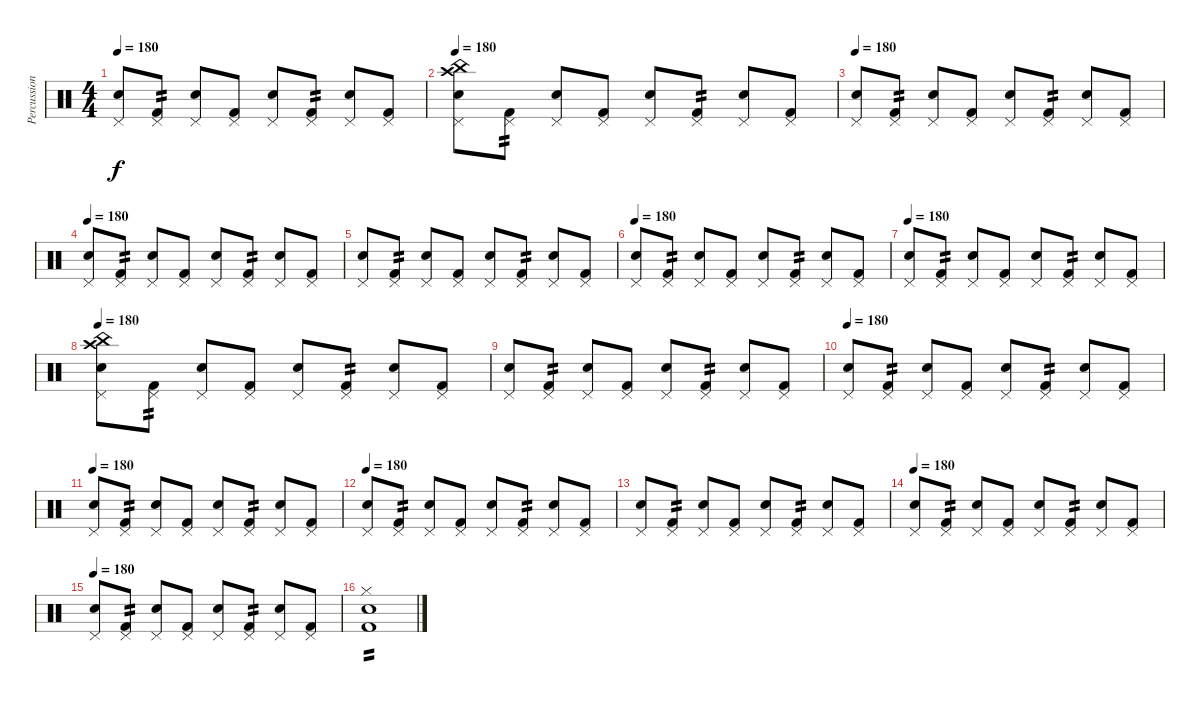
\track ("Percussion" "Percussion") {instrument percussion}
\staff {score}
\articulation defaults
\ts (4 4)
\tempo 180
\clef neutral
\ks c
("Pedal Hi-Hat (hit)" "Electric Snare (hit)").8{dy f} ("Pedal Hi-Hat (hit)" "Kick (hit) 2").8{tp 2} ("Pedal Hi-Hat (hit)" "Electric Snare (hit)").8 ("Pedal Hi-Hat (hit)" "Kick (hit) 2").8 ("Pedal Hi-Hat (hit)" "Electric Snare (hit)").8 ("Pedal Hi-Hat (hit)" "Kick (hit) 2").8{tp 2} ("Pedal Hi-Hat (hit)" "Electric Snare (hit)").8 ("Pedal Hi-Hat (hit)" "Kick (hit) 2").8 |
\tempo 180
("China (hit)" "Crash high (hit)" "Pedal Hi-Hat (hit)" "Electric Snare (hit)").8 ("Pedal Hi-Hat (hit)" "Kick (hit) 2").8{tp 2} ("Pedal Hi-Hat (hit)" "Electric Snare (hit)").8 ("Pedal Hi-Hat (hit)" "Kick (hit) 2").8 ("Pedal Hi-Hat (hit)" "Electric Snare (hit)").8 ("Pedal Hi-Hat (hit)" "Kick (hit) 2").8{tp 2} ("Pedal Hi-Hat (hit)" "Electric Snare (hit)").8 ("Pedal Hi-Hat (hit)" "Kick (hit) 2").8 |
\tempo 180
("Pedal Hi-Hat (hit)" "Electric Snare (hit)").8 ("Pedal Hi-Hat (hit)" "Kick (hit) 2").8{tp 2} ("Pedal Hi-Hat (hit)" "Electric Snare (hit)").8 ("Pedal Hi-Hat (hit)" "Kick (hit) 2").8 ("Pedal Hi-Hat (hit)" "Electric Snare (hit)").8 ("Pedal Hi-Hat (hit)" "Kick (hit) 2").8{tp 2} ("Pedal Hi-Hat (hit)" "Electric Snare (hit)").8 ("Pedal Hi-Hat (hit)" "Kick (hit) 2").8 |
\tempo 180
("Pedal Hi-Hat (hit)" "Electric Snare (hit)").8 ("Pedal Hi-Hat (hit)" "Kick (hit) 2").8{tp 2} ("Pedal Hi-Hat (hit)" "Electric Snare (hit)").8 ("Pedal Hi-Hat (hit)" "Kick (hit) 2").8 ("Pedal Hi-Hat (hit)" "Electric Snare (hit)").8 ("Pedal Hi-Hat (hit)" "Kick (hit) 2").8{tp 2} ("Pedal Hi-Hat (hit)" "Electric Snare (hit)").8 ("Pedal Hi-Hat (hit)" "Kick (hit) 2").8 |
("Pedal Hi-Hat (hit)" "Electric Snare (hit)").8 ("Pedal Hi-Hat (hit)" "Kick (hit) 2").8{tp 2} ("Pedal Hi-Hat (hit)" "Electric Snare (hit)").8 ("Pedal Hi-Hat (hit)" "Kick (hit) 2").8 ("Pedal Hi-Hat (hit)" "Electric Snare (hit)").8 ("Pedal Hi-Hat (hit)" "Kick (hit) 2").8{tp 2} ("Pedal Hi-Hat (hit)" "Electric Snare (hit)").8 ("Pedal Hi-Hat (hit)" "Kick (hit) 2").8 |
\tempo 180
("Pedal Hi-Hat (hit)" "Electric Snare (hit)").8 ("Pedal Hi-Hat (hit)" "Kick (hit) 2").8{tp 2} ("Pedal Hi-Hat (hit)" "Electric Snare (hit)").8 ("Pedal Hi-Hat (hit)" "Kick (hit) 2").8 ("Pedal Hi-Hat (hit)" "Electric Snare (hit)").8 ("Pedal Hi-Hat (hit)" "Kick (hit) 2").8{tp 2} ("Pedal Hi-Hat (hit)" "Electric Snare (hit)").8 ("Pedal Hi-Hat (hit)" "Kick (hit) 2").8 |
\tempo 180
("Pedal Hi-Hat (hit)" "Electric Snare (hit)").8 ("Pedal Hi-Hat (hit)" "Kick (hit) 2").8{tp 2} ("Pedal Hi-Hat (hit)" "Electric Snare (hit)").8 ("Pedal Hi-Hat (hit)" "Kick (hit) 2").8 ("Pedal Hi-Hat (hit)" "Electric Snare (hit)").8 ("Pedal Hi-Hat (hit)" "Kick (hit) 2").8{tp 2} ("Pedal Hi-Hat (hit)" "Electric Snare (hit)").8 ("Pedal Hi-Hat (hit)" "Kick (hit) 2").8 |
\tempo 180
("China (hit)" "Crash high (hit)" "Pedal Hi-Hat (hit)" "Electric Snare (hit)").8 ("Pedal Hi-Hat (hit)" "Kick (hit) 2").8{tp 2} ("Pedal Hi-Hat (hit)" "Electric Snare (hit)").8 ("Pedal Hi-Hat (hit)" "Kick (hit) 2").8 ("Pedal Hi-Hat (hit)" "Electric Snare (hit)").8 ("Pedal Hi-Hat (hit)" "Kick (hit) 2").8{tp 2} ("Pedal Hi-Hat (hit)" "Electric Snare (hit)").8 ("Pedal Hi-Hat (hit)" "Kick (hit) 2").8 |
("Pedal Hi-Hat (hit)" "Electric Snare (hit)").8 ("Pedal Hi-Hat (hit)" "Kick (hit) 2").8{tp 2} ("Pedal Hi-Hat (hit)" "Electric Snare (hit)").8 ("Pedal Hi-Hat (hit)" "Kick (hit) 2").8 ("Pedal Hi-Hat (hit)" "Electric Snare (hit)").8 ("Pedal Hi-Hat (hit)" "Kick (hit) 2").8{tp 2} ("Pedal Hi-Hat (hit)" "Electric Snare (hit)").8 ("Pedal Hi-Hat (hit)" "Kick (hit) 2").8 |
\tempo 180
("Pedal Hi-Hat (hit)" "Electric Snare (hit)").8 ("Pedal Hi-Hat (hit)" "Kick (hit) 2").8{tp 2} ("Pedal Hi-Hat (hit)" "Electric Snare (hit)").8 ("Pedal Hi-Hat (hit)" "Kick (hit) 2").8 ("Pedal Hi-Hat (hit)" "Electric Snare (hit)").8 ("Pedal Hi-Hat (hit)" "Kick (hit) 2").8{tp 2} ("Pedal Hi-Hat (hit)" "Electric Snare (hit)").8 ("Pedal Hi-Hat (hit)" "Kick (hit) 2").8 |
\tempo 180
("Pedal Hi-Hat (hit)" "Electric Snare (hit)").8 ("Pedal Hi-Hat (hit)" "Kick (hit) 2").8{tp 2} ("Pedal Hi-Hat (hit)" "Electric Snare (hit)").8 ("Pedal Hi-Hat (hit)" "Kick (hit) 2").8 ("Pedal Hi-Hat (hit)" "Electric Snare (hit)").8 ("Pedal Hi-Hat (hit)" "Kick (hit) 2").8{tp 2} ("Pedal Hi-Hat (hit)" "Electric Snare (hit)").8 ("Pedal Hi-Hat (hit)" "Kick (hit) 2").8 |
\tempo 180
("Pedal Hi-Hat (hit)" "Electric Snare (hit)").8 ("Pedal Hi-Hat (hit)" "Kick (hit) 2").8{tp 2} ("Pedal Hi-Hat (hit)" "Electric Snare (hit)").8 ("Pedal Hi-Hat (hit)" "Kick (hit) 2").8 ("Pedal Hi-Hat (hit)" "Electric Snare (hit)").8 ("Pedal Hi-Hat (hit)" "Kick (hit) 2").8{tp 2} ("Pedal Hi-Hat (hit)" "Electric Snare (hit)").8 ("Pedal Hi-Hat (hit)" "Kick (hit) 2").8 |
("Pedal Hi-Hat (hit)" "Electric Snare (hit)").8 ("Pedal Hi-Hat (hit)" "Kick (hit) 2").8{tp 2} ("Pedal Hi-Hat (hit)" "Electric Snare (hit)").8 ("Pedal Hi-Hat (hit)" "Kick (hit) 2").8 ("Pedal Hi-Hat (hit)" "Electric Snare (hit)").8 ("Pedal Hi-Hat (hit)" "Kick (hit) 2").8{tp 2} ("Pedal Hi-Hat (hit)" "Electric Snare (hit)").8 ("Pedal Hi-Hat (hit)" "Kick (hit) 2").8 |
\tempo 180
("Pedal Hi-Hat (hit)" "Electric Snare (hit)").8 ("Pedal Hi-Hat (hit)" "Kick (hit) 2").8{tp 2} ("Pedal Hi-Hat (hit)" "Electric Snare (hit)").8 ("Pedal Hi-Hat (hit)" "Kick (hit) 2").8 ("Pedal Hi-Hat (hit)" "Electric Snare (hit)").8 ("Pedal Hi-Hat (hit)" "Kick (hit) 2").8{tp 2} ("Pedal Hi-Hat (hit)" "Electric Snare (hit)").8 ("Pedal Hi-Hat (hit)" "Kick (hit) 2").8 |
\tempo 180
("Pedal Hi-Hat (hit)" "Electric Snare (hit)").8 ("Pedal Hi-Hat (hit)" "Kick (hit) 2").8{tp 2} ("Pedal Hi-Hat (hit)" "Electric Snare (hit)").8 ("Pedal Hi-Hat (hit)" "Kick (hit) 2").8 ("Pedal Hi-Hat (hit)" "Electric Snare (hit)").8 ("Pedal Hi-Hat (hit)" "Kick (hit) 2").8{tp 2} ("Pedal Hi-Hat (hit)" "Electric Snare (hit)").8 ("Pedal Hi-Hat (hit)" "Kick (hit) 2").8 |
("Electric Snare (hit)" "Hi-Hat (closed)" "Kick (hit) 2").1{tp 2}
